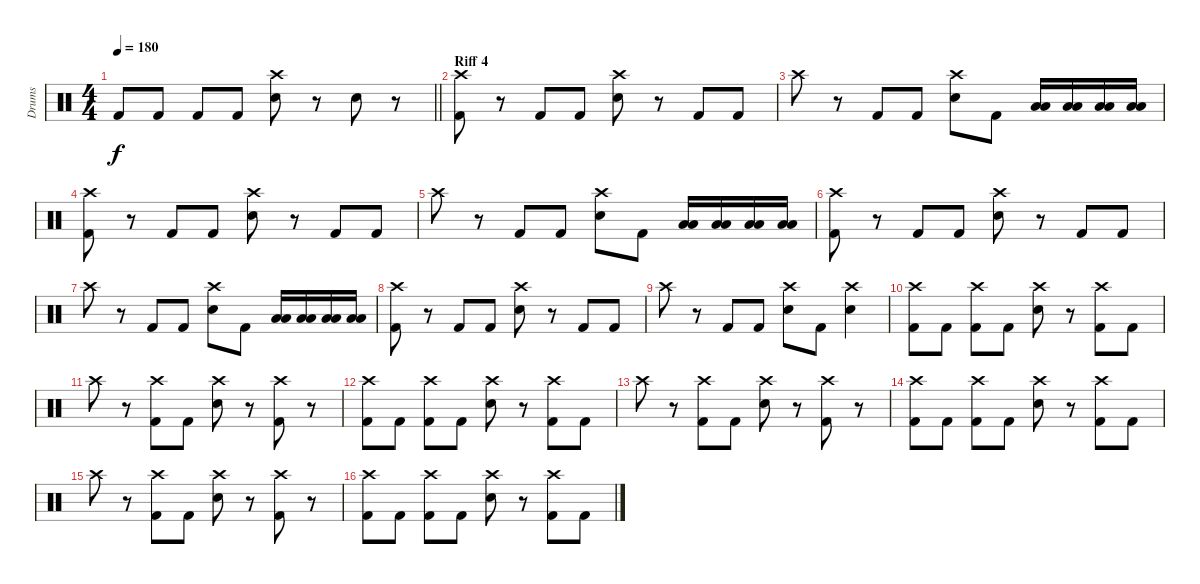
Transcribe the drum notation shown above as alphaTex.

\track ("Drums" "Drums") {instrument percussion}
\staff {score}
\articulation defaults
\ts (4 4)
\tempo 180
\clef neutral
\barLineRight lightlight
\ks c "Kick (hit) 2".8{dy f} "Kick (hit) 2".8 "Kick (hit) 2".8 "Kick (hit) 2".8
("Crash high (hit)" "Snare (hit) 2").8 r.8 "Snare (hit) 2".8 r.8 |
\section ("" "Riff 4")
("Crash high (hit)" "Kick (hit) 2").8 r.8 "Kick (hit) 2".8 "Kick (hit) 2".8 ("Crash high (hit)" "Snare (hit) 2").8 r.8 "Kick (hit) 2".8 "Kick (hit) 2".8 |
"Crash high (hit)".8 r.8 "Kick (hit) 2".8 "Kick (hit) 2".8 ("Crash high (hit)" "Snare (hit) 2").8 "Kick (hit) 2".8 ("Low Tom (hit)" "Low Tom (hit)").16 ("Low Tom (hit)" "Low Tom (hit)").16 ("Low Floor Tom (hit)" "Low Floor Tom (hit)").16 ("Low Floor Tom (hit)" "Low Floor Tom (hit)").16 |
("Crash high (hit)" "Kick (hit) 2").8 r.8 "Kick (hit) 2".8 "Kick (hit) 2".8 ("Crash high (hit)" "Snare (hit) 2").8 r.8 "Kick (hit) 2".8 "Kick (hit) 2".8 |
"Crash high (hit)".8 r.8 "Kick (hit) 2".8 "Kick (hit) 2".8 ("Crash high (hit)" "Snare (hit) 2").8 "Kick (hit) 2".8 ("Low Tom (hit)" "Low Tom (hit)").16 ("Low Tom (hit)" "Low Tom (hit)").16 ("Low Floor Tom (hit)" "Low Floor Tom (hit)").16 ("Low Floor Tom (hit)" "Low Floor Tom (hit)").16 |
("Crash high (hit)" "Kick (hit) 2").8 r.8 "Kick (hit) 2".8 "Kick (hit) 2".8 ("Crash high (hit)" "Snare (hit) 2").8 r.8 "Kick (hit) 2".8 "Kick (hit) 2".8 |
"Crash high (hit)".8 r.8 "Kick (hit) 2".8 "Kick (hit) 2".8 ("Crash high (hit)" "Snare (hit) 2").8 "Kick (hit) 2".8 ("Low Tom (hit)" "Low Tom (hit)").16 ("Low Tom (hit)" "Low Tom (hit)").16 ("Low Floor Tom (hit)" "Low Floor Tom (hit)").16 ("Low Floor Tom (hit)" "Low Floor Tom (hit)").16 |
("Crash high (hit)" "Kick (hit) 2").8 r.8 "Kick (hit) 2".8 "Kick (hit) 2".8 ("Crash high (hit)" "Snare (hit) 2").8 r.8 "Kick (hit) 2".8 "Kick (hit) 2".8 |
"Crash high (hit)".8 r.8 "Kick (hit) 2".8 "Kick (hit) 2".8 ("Crash high (hit)" "Snare (hit) 2").8 "Kick (hit) 2".8 ("Crash high (hit)" "Snare (hit) 2").4 |
("Crash high (hit)" "Kick (hit) 2").8 "Kick (hit) 2".8 ("Crash high (hit)" "Kick (hit) 2").8 "Kick (hit) 2".8 ("Crash high (hit)" "Snare (hit) 2").8 r.8 ("Crash high (hit)" "Kick (hit) 2").8 "Kick (hit) 2".8 |
"Crash high (hit)".8 r.8 ("Crash high (hit)" "Kick (hit) 2").8 "Kick (hit) 2".8 ("Crash high (hit)" "Snare (hit) 2").8 r.8 ("Crash high (hit)" "Kick (hit) 2").8 r.8 |
("Crash high (hit)" "Kick (hit) 2").8 "Kick (hit) 2".8 ("Crash high (hit)" "Kick (hit) 2").8 "Kick (hit) 2".8 ("Crash high (hit)" "Snare (hit) 2").8 r.8 ("Crash high (hit)" "Kick (hit) 2").8 "Kick (hit) 2".8 |
"Crash high (hit)".8 r.8 ("Crash high (hit)" "Kick (hit) 2").8 "Kick (hit) 2".8 ("Crash high (hit)" "Snare (hit) 2").8 r.8 ("Crash high (hit)" "Kick (hit) 2").8 r.8 |
("Crash high (hit)" "Kick (hit) 2").8 "Kick (hit) 2".8 ("Crash high (hit)" "Kick (hit) 2").8 "Kick (hit) 2".8 ("Crash high (hit)" "Snare (hit) 2").8 r.8 ("Crash high (hit)" "Kick (hit) 2").8 "Kick (hit) 2".8 |
"Crash high (hit)".8 r.8 ("Crash high (hit)" "Kick (hit) 2").8 "Kick (hit) 2".8 ("Crash high (hit)" "Snare (hit) 2").8 r.8 ("Crash high (hit)" "Kick (hit) 2").8 r.8 |
("Crash high (hit)" "Kick (hit) 2").8 "Kick (hit) 2".8 ("Crash high (hit)" "Kick (hit) 2").8 "Kick (hit) 2".8 ("Crash high (hit)" "Snare (hit) 2").8 r.8 ("Crash high (hit)" "Kick (hit) 2").8 "Kick (hit) 2".8
